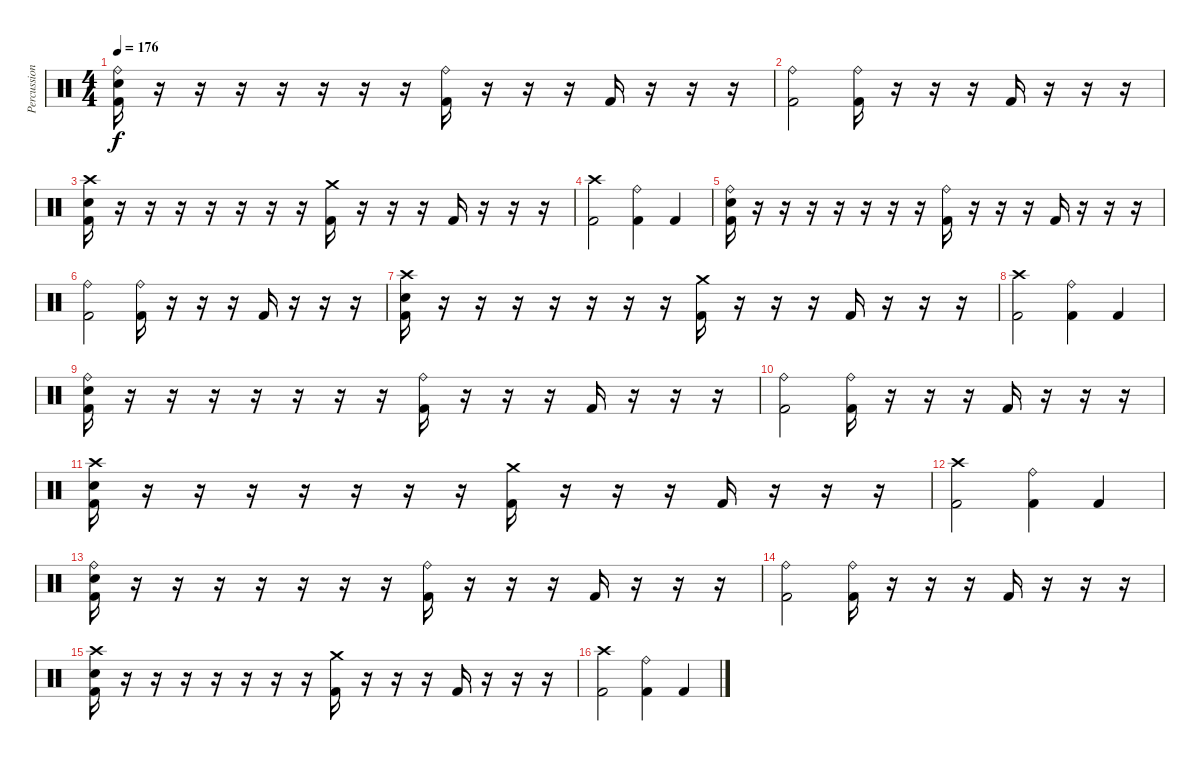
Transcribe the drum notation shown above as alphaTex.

\track ("Percussion" "Percussion") {instrument percussion}
\staff {score}
\articulation defaults
\ts (4 4)
\tempo 176
\clef neutral
\ks c
("Ride (bell)" "Electric Snare (hit)" "Kick (hit) 2").16{dy f} r.16 r.16 r.16 r.16 r.16 r.16 r.16 ("Ride (bell)" "Kick (hit) 2").16 r.16 r.16 r.16 "Kick (hit) 2".16 r.16 r.16 r.16 |
("Ride (bell)" "Kick (hit) 2").2 ("Ride (bell)" "Kick (hit) 2").16 r.16 r.16 r.16 "Kick (hit) 2".16 r.16 r.16 r.16 |
("Crash high (hit)" "Electric Snare (hit)" "Kick (hit) 2").16 r.16 r.16 r.16 r.16 r.16 r.16 r.16 ("Crash medium (hit)" "Kick (hit) 2").16 r.16 r.16 r.16 "Kick (hit) 2".16 r.16 r.16 r.16 |
("Crash high (hit)" "Kick (hit) 2").2 ("Ride (bell)" "Kick (hit) 2").4 "Kick (hit) 2".4 |
("Ride (bell)" "Electric Snare (hit)" "Kick (hit) 2").16 r.16 r.16 r.16 r.16 r.16 r.16 r.16 ("Ride (bell)" "Kick (hit) 2").16 r.16 r.16 r.16 "Kick (hit) 2".16 r.16 r.16 r.16 |
("Ride (bell)" "Kick (hit) 2").2 ("Ride (bell)" "Kick (hit) 2").16 r.16 r.16 r.16 "Kick (hit) 2".16 r.16 r.16 r.16 |
("Crash high (hit)" "Electric Snare (hit)" "Kick (hit) 2").16 r.16 r.16 r.16 r.16 r.16 r.16 r.16 ("Crash medium (hit)" "Kick (hit) 2").16 r.16 r.16 r.16 "Kick (hit) 2".16 r.16 r.16 r.16 |
("Crash high (hit)" "Kick (hit) 2").2 ("Ride (bell)" "Kick (hit) 2").4 "Kick (hit) 2".4 |
("Ride (bell)" "Electric Snare (hit)" "Kick (hit) 2").16 r.16 r.16 r.16 r.16 r.16 r.16 r.16 ("Ride (bell)" "Kick (hit) 2").16 r.16 r.16 r.16 "Kick (hit) 2".16 r.16 r.16 r.16 |
("Ride (bell)" "Kick (hit) 2").2 ("Ride (bell)" "Kick (hit) 2").16 r.16 r.16 r.16 "Kick (hit) 2".16 r.16 r.16 r.16 |
("Crash high (hit)" "Electric Snare (hit)" "Kick (hit) 2").16 r.16 r.16 r.16 r.16 r.16 r.16 r.16 ("Crash medium (hit)" "Kick (hit) 2").16 r.16 r.16 r.16 "Kick (hit) 2".16 r.16 r.16 r.16 |
("Crash high (hit)" "Kick (hit) 2").2 ("Ride (bell)" "Kick (hit) 2").4 "Kick (hit) 2".4 |
("Ride (bell)" "Electric Snare (hit)" "Kick (hit) 2").16 r.16 r.16 r.16 r.16 r.16 r.16 r.16 ("Ride (bell)" "Kick (hit) 2").16 r.16 r.16 r.16 "Kick (hit) 2".16 r.16 r.16 r.16 |
("Ride (bell)" "Kick (hit) 2").2 ("Ride (bell)" "Kick (hit) 2").16 r.16 r.16 r.16 "Kick (hit) 2".16 r.16 r.16 r.16 |
("Crash high (hit)" "Electric Snare (hit)" "Kick (hit) 2").16 r.16 r.16 r.16 r.16 r.16 r.16 r.16 ("Crash medium (hit)" "Kick (hit) 2").16 r.16 r.16 r.16 "Kick (hit) 2".16 r.16 r.16 r.16 |
("Crash high (hit)" "Kick (hit) 2").2 ("Ride (bell)" "Kick (hit) 2").4 "Kick (hit) 2".4
